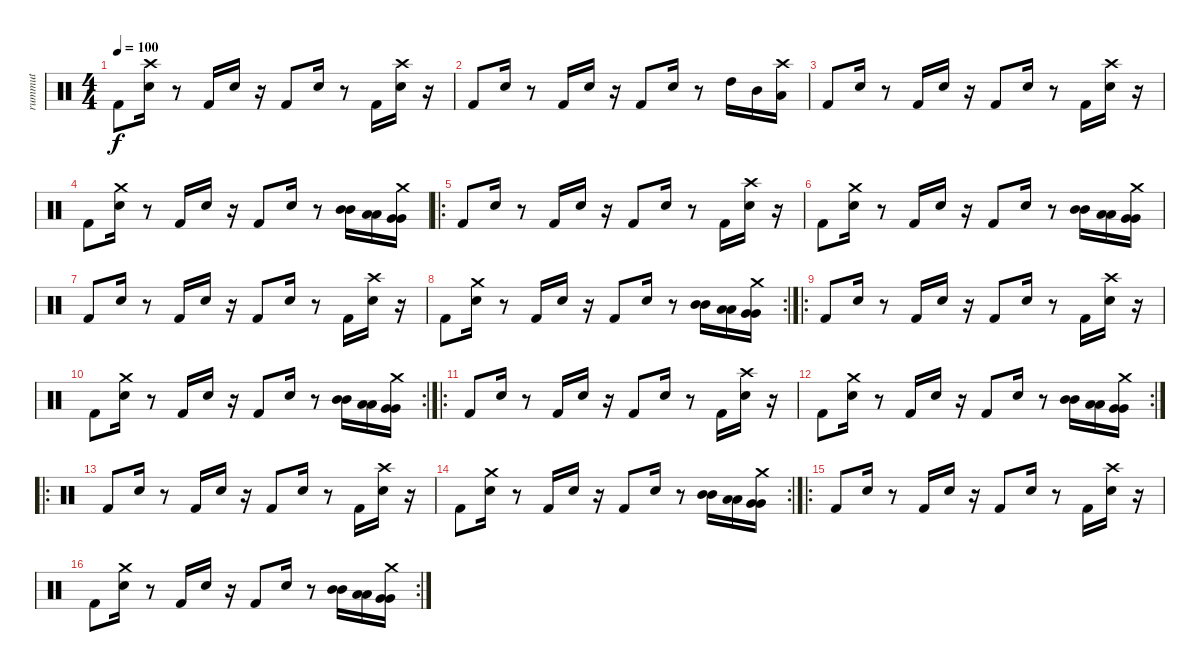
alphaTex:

\track ("rummut" "rummut") {instrument percussion}
\staff {score}
\articulation defaults
\ts (4 4)
\tempo 100
\clef neutral
\ks c "Kick (hit) 2".8{dy f}
("Crash high (hit)" "Snare (hit) 2").16 r.8 "Kick (hit) 2".16 "Snare (hit) 2".16 r.16 "Kick (hit) 2".8 "Snare (hit) 2".16 r.8 "Kick (hit) 2".16 ("Crash high (hit)" "Snare (hit) 2").16 r.16 |
"Kick (hit) 2".8 "Snare (hit) 2".16 r.8 "Kick (hit) 2".16 "Snare (hit) 2".16 r.16 "Kick (hit) 2".8 "Snare (hit) 2".16 r.8 "High Tom (hit)".16 "Mid Tom (hit)".16 ("Crash high (hit)" "Low Tom (hit)").16 |
"Kick (hit) 2".8 "Snare (hit) 2".16 r.8 "Kick (hit) 2".16 "Snare (hit) 2".16 r.16 "Kick (hit) 2".8 "Snare (hit) 2".16 r.8 "Kick (hit) 2".16 ("Crash high (hit)" "Snare (hit) 2").16 r.16 |
"Kick (hit) 2".8 ("Crash medium (hit)" "Snare (hit) 2").16 r.8 "Kick (hit) 2".16 "Snare (hit) 2".16 r.16 "Kick (hit) 2".8 "Snare (hit) 2".16 r.8 ("Mid Tom (hit)" "Mid Tom (hit)").16 ("Low Tom (hit)" "Low Tom (hit)").16 ("Crash medium (hit)" "Very Low Tom (hit)" "Very Low Tom (hit)").16 |
\ro "Kick (hit) 2".8 "Snare (hit) 2".16
r.8 "Kick (hit) 2".16 "Snare (hit) 2".16 r.16 "Kick (hit) 2".8 "Snare (hit) 2".16 r.8 "Kick (hit) 2".16 ("Crash high (hit)" "Snare (hit) 2").16 r.16 |
"Kick (hit) 2".8 ("Crash medium (hit)" "Snare (hit) 2").16 r.8 "Kick (hit) 2".16 "Snare (hit) 2".16 r.16 "Kick (hit) 2".8 "Snare (hit) 2".16 r.8 ("Mid Tom (hit)" "Mid Tom (hit)").16 ("Low Tom (hit)" "Low Tom (hit)").16 ("Crash medium (hit)" "Very Low Tom (hit)" "Very Low Tom (hit)").16 |
"Kick (hit) 2".8 "Snare (hit) 2".16 r.8 "Kick (hit) 2".16 "Snare (hit) 2".16 r.16 "Kick (hit) 2".8 "Snare (hit) 2".16 r.8 "Kick (hit) 2".16 ("Crash high (hit)" "Snare (hit) 2").16 r.16 |
\rc 2 "Kick (hit) 2".8
("Crash medium (hit)" "Snare (hit) 2").16 r.8 "Kick (hit) 2".16 "Snare (hit) 2".16 r.16 "Kick (hit) 2".8 "Snare (hit) 2".16 r.8 ("Mid Tom (hit)" "Mid Tom (hit)").16 ("Low Tom (hit)" "Low Tom (hit)").16 ("Crash medium (hit)" "Very Low Tom (hit)" "Very Low Tom (hit)").16 |
\ro "Kick (hit) 2".8 "Snare (hit) 2".16
r.8 "Kick (hit) 2".16 "Snare (hit) 2".16 r.16 "Kick (hit) 2".8 "Snare (hit) 2".16 r.8 "Kick (hit) 2".16 ("Crash high (hit)" "Snare (hit) 2").16 r.16 |
\rc 2 "Kick (hit) 2".8
("Crash medium (hit)" "Snare (hit) 2").16 r.8 "Kick (hit) 2".16 "Snare (hit) 2".16 r.16 "Kick (hit) 2".8 "Snare (hit) 2".16 r.8 ("Mid Tom (hit)" "Mid Tom (hit)").16 ("Low Tom (hit)" "Low Tom (hit)").16 ("Crash medium (hit)" "Very Low Tom (hit)" "Very Low Tom (hit)").16 |
\ro "Kick (hit) 2".8 "Snare (hit) 2".16
r.8 "Kick (hit) 2".16 "Snare (hit) 2".16 r.16 "Kick (hit) 2".8 "Snare (hit) 2".16 r.8 "Kick (hit) 2".16 ("Crash high (hit)" "Snare (hit) 2").16 r.16 |
\rc 2 "Kick (hit) 2".8
("Crash medium (hit)" "Snare (hit) 2").16 r.8 "Kick (hit) 2".16 "Snare (hit) 2".16 r.16 "Kick (hit) 2".8 "Snare (hit) 2".16 r.8 ("Mid Tom (hit)" "Mid Tom (hit)").16 ("Low Tom (hit)" "Low Tom (hit)").16 ("Crash medium (hit)" "Very Low Tom (hit)" "Very Low Tom (hit)").16 |
\ro "Kick (hit) 2".8 "Snare (hit) 2".16
r.8 "Kick (hit) 2".16 "Snare (hit) 2".16 r.16 "Kick (hit) 2".8 "Snare (hit) 2".16 r.8 "Kick (hit) 2".16 ("Crash high (hit)" "Snare (hit) 2").16 r.16 |
\rc 2 "Kick (hit) 2".8
("Crash medium (hit)" "Snare (hit) 2").16 r.8 "Kick (hit) 2".16 "Snare (hit) 2".16 r.16 "Kick (hit) 2".8 "Snare (hit) 2".16 r.8 ("Mid Tom (hit)" "Mid Tom (hit)").16 ("Low Tom (hit)" "Low Tom (hit)").16 ("Crash medium (hit)" "Very Low Tom (hit)" "Very Low Tom (hit)").16 |
\ro "Kick (hit) 2".8 "Snare (hit) 2".16
r.8 "Kick (hit) 2".16 "Snare (hit) 2".16 r.16 "Kick (hit) 2".8 "Snare (hit) 2".16 r.8 "Kick (hit) 2".16 ("Crash high (hit)" "Snare (hit) 2").16 r.16 |
\rc 2 "Kick (hit) 2".8
("Crash medium (hit)" "Snare (hit) 2").16 r.8 "Kick (hit) 2".16 "Snare (hit) 2".16 r.16 "Kick (hit) 2".8 "Snare (hit) 2".16 r.8 ("Mid Tom (hit)" "Mid Tom (hit)").16 ("Low Tom (hit)" "Low Tom (hit)").16 ("Crash medium (hit)" "Very Low Tom (hit)" "Very Low Tom (hit)").16
